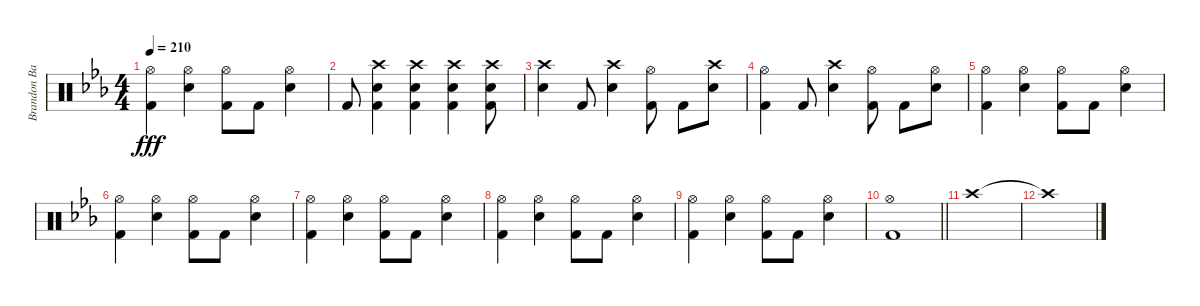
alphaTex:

\track ("Brandon Barnes" "Brandon Ba") {instrument percussion}
\staff {score}
\articulation defaults
\ts (4 4)
\tempo 210
\clef neutral
\ks eb
("Hi-Hat (open)" "Kick (hit) 2").4{dy fff} ("Hi-Hat (open)" "Snare (hit) 2").4 ("Hi-Hat (open)" "Kick (hit) 2").8 "Kick (hit) 2".8 ("Hi-Hat (open)" "Snare (hit) 2").4 |
"Kick (hit) 2".8 ("Crash high (hit)" "Kick (hit) 2" "Snare (hit) 2").4 ("Crash high (hit)" "Kick (hit) 2" "Snare (hit) 2").4 ("Crash high (hit)" "Kick (hit) 2" "Snare (hit) 2").4 ("Crash high (hit)" "Kick (hit) 2" "Snare (hit) 2").8 |
("Crash high (hit)" "Snare (hit) 2").4 "Kick (hit) 2".8 ("Crash high (hit)" "Snare (hit) 2").4 ("Hi-Hat (open)" "Kick (hit) 2").8 "Kick (hit) 2".8 ("Crash high (hit)" "Snare (hit) 2").8 |
("Hi-Hat (open)" "Kick (hit) 2").4 "Kick (hit) 2".8 ("Crash high (hit)" "Snare (hit) 2").4 ("Hi-Hat (open)" "Kick (hit) 2").8 "Kick (hit) 2".8 ("Hi-Hat (open)" "Snare (hit) 2").8 |
("Hi-Hat (open)" "Kick (hit) 2").4 ("Hi-Hat (open)" "Snare (hit) 2").4 ("Hi-Hat (open)" "Kick (hit) 2").8 "Kick (hit) 2".8 ("Hi-Hat (open)" "Snare (hit) 2").4 |
("Hi-Hat (open)" "Kick (hit) 2").4 ("Hi-Hat (open)" "Snare (hit) 2").4 ("Hi-Hat (open)" "Kick (hit) 2").8 "Kick (hit) 2".8 ("Hi-Hat (open)" "Snare (hit) 2").4 |
("Hi-Hat (open)" "Kick (hit) 2").4 ("Hi-Hat (open)" "Snare (hit) 2").4 ("Hi-Hat (open)" "Kick (hit) 2").8 "Kick (hit) 2".8 ("Hi-Hat (open)" "Snare (hit) 2").4 |
("Hi-Hat (open)" "Kick (hit) 2").4 ("Hi-Hat (open)" "Snare (hit) 2").4 ("Hi-Hat (open)" "Kick (hit) 2").8 "Kick (hit) 2".8 ("Hi-Hat (open)" "Snare (hit) 2").4 |
("Hi-Hat (open)" "Kick (hit) 2").4 ("Hi-Hat (open)" "Snare (hit) 2").4 ("Hi-Hat (open)" "Kick (hit) 2").8 "Kick (hit) 2".8 ("Hi-Hat (open)" "Snare (hit) 2").4 |
\barLineRight lightlight
("Hi-Hat (open)" "Kick (hit) 2").1 |
"Crash high (hit)".1 |
"Crash high (hit)"{t}.1
